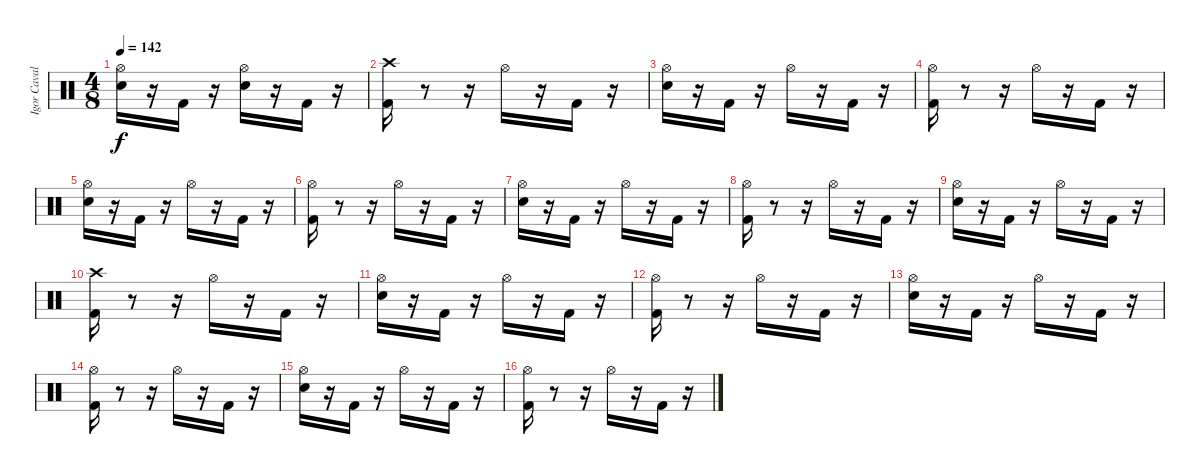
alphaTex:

\track ("Igor Cavalera" "Igor Caval") {instrument percussion}
\staff {score}
\articulation defaults
\ts (4 8)
\tempo 142
\clef neutral
\ks c
("Electric Snare (hit)" "Hi-Hat (open)").16{dy f} r.16 "Kick (hit) 2".16 r.16 ("Hi-Hat (open)" "Electric Snare (hit)").16 r.16 "Kick (hit) 2".16 r.16 |
("Kick (hit) 2" "Crash high (hit)").16 r.8 r.16 "Hi-Hat (open)".16 r.16 "Kick (hit) 2".16 r.16 |
("Electric Snare (hit)" "Hi-Hat (open)").16 r.16 "Kick (hit) 2".16 r.16 "Hi-Hat (open)".16 r.16 "Kick (hit) 2".16 r.16 |
("Kick (hit) 2" "Hi-Hat (open)").16 r.8 r.16 "Hi-Hat (open)".16 r.16 "Kick (hit) 2".16 r.16 |
("Electric Snare (hit)" "Hi-Hat (open)").16 r.16 "Kick (hit) 2".16 r.16 "Hi-Hat (open)".16 r.16 "Kick (hit) 2".16 r.16 |
("Kick (hit) 2" "Hi-Hat (open)").16 r.8 r.16 "Hi-Hat (open)".16 r.16 "Kick (hit) 2".16 r.16 |
("Electric Snare (hit)" "Hi-Hat (open)").16 r.16 "Kick (hit) 2".16 r.16 "Hi-Hat (open)".16 r.16 "Kick (hit) 2".16 r.16 |
("Kick (hit) 2" "Hi-Hat (open)").16 r.8 r.16 "Hi-Hat (open)".16 r.16 "Kick (hit) 2".16 r.16 |
("Electric Snare (hit)" "Hi-Hat (open)").16 r.16 "Kick (hit) 2".16 r.16 "Hi-Hat (open)".16 r.16 "Kick (hit) 2".16 r.16 |
("Kick (hit) 2" "Crash high (hit)").16 r.8 r.16 "Hi-Hat (open)".16 r.16 "Kick (hit) 2".16 r.16 |
("Electric Snare (hit)" "Hi-Hat (open)").16 r.16 "Kick (hit) 2".16 r.16 "Hi-Hat (open)".16 r.16 "Kick (hit) 2".16 r.16 |
("Kick (hit) 2" "Hi-Hat (open)").16 r.8 r.16 "Hi-Hat (open)".16 r.16 "Kick (hit) 2".16 r.16 |
("Electric Snare (hit)" "Hi-Hat (open)").16 r.16 "Kick (hit) 2".16 r.16 "Hi-Hat (open)".16 r.16 "Kick (hit) 2".16 r.16 |
("Kick (hit) 2" "Hi-Hat (open)").16 r.8 r.16 "Hi-Hat (open)".16 r.16 "Kick (hit) 2".16 r.16 |
("Electric Snare (hit)" "Hi-Hat (open)").16 r.16 "Kick (hit) 2".16 r.16 "Hi-Hat (open)".16 r.16 "Kick (hit) 2".16 r.16 |
("Kick (hit) 2" "Hi-Hat (open)").16 r.8 r.16 "Hi-Hat (open)".16 r.16 "Kick (hit) 2".16 r.16
